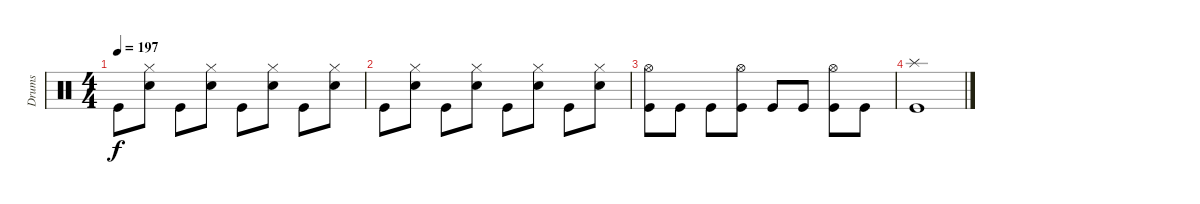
\track ("Drums" "Drums") {instrument percussion}
\staff {score}
\articulation defaults
\ts (4 4)
\tempo 197
\clef neutral
\ks c "Kick (hit)".8{dy f}
("Hi-Hat (closed)" "Snare (hit) 2").8 "Kick (hit)".8 ("Hi-Hat (closed)" "Snare (hit) 2").8 "Kick (hit)".8 ("Hi-Hat (closed)" "Snare (hit) 2").8 "Kick (hit)".8 ("Hi-Hat (closed)" "Snare (hit) 2").8 |
"Kick (hit)".8 ("Hi-Hat (closed)" "Snare (hit) 2").8 "Kick (hit)".8 ("Hi-Hat (closed)" "Snare (hit) 2").8 "Kick (hit)".8 ("Hi-Hat (closed)" "Snare (hit) 2").8 "Kick (hit)".8 ("Hi-Hat (closed)" "Snare (hit) 2").8 |
("Hi-Hat (open)" "Kick (hit)").8 "Kick (hit)".8 "Kick (hit)".8 ("Hi-Hat (open)" "Kick (hit)").8 "Kick (hit)".8 "Kick (hit)".8 ("Hi-Hat (open)" "Kick (hit)").8 "Kick (hit)".8 |
("Splash (hit)" "Kick (hit)").1
